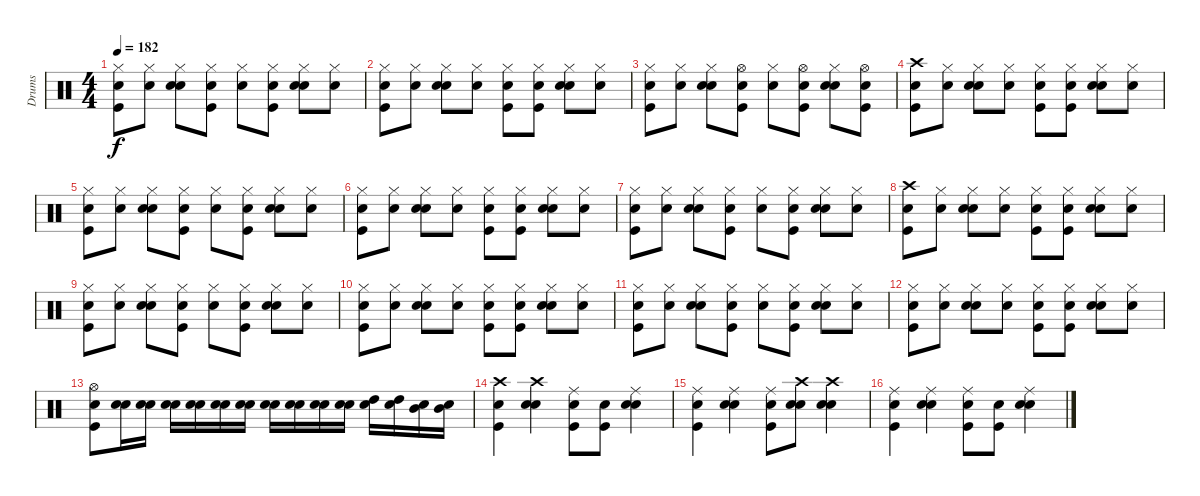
\track ("Drums" "Drums") {instrument percussion}
\staff {score}
\articulation defaults
\ts (4 4)
\tempo 182
\clef neutral
\ks c
("Snare (hit)" "Kick (hit)" "Hi-Hat (closed)").8{dy f} ("Snare (hit)" "Hi-Hat (closed)").8 ("Snare (hit)" "Electric Snare (hit)" "Hi-Hat (closed)").8 ("Snare (hit)" "Kick (hit)" "Hi-Hat (closed)").8 ("Snare (hit)" "Hi-Hat (closed)").8 ("Snare (hit)" "Kick (hit)" "Hi-Hat (closed)").8 ("Snare (hit)" "Electric Snare (hit)" "Hi-Hat (closed)").8 ("Snare (hit)" "Hi-Hat (closed)").8 |
("Snare (hit)" "Kick (hit)" "Hi-Hat (closed)").8 ("Snare (hit)" "Hi-Hat (closed)").8 ("Snare (hit)" "Electric Snare (hit)" "Hi-Hat (closed)").8 ("Snare (hit)" "Hi-Hat (closed)").8 ("Snare (hit)" "Kick (hit)" "Hi-Hat (closed)").8 ("Snare (hit)" "Kick (hit)" "Hi-Hat (closed)").8 ("Snare (hit)" "Electric Snare (hit)" "Hi-Hat (closed)").8 ("Snare (hit)" "Hi-Hat (closed)").8 |
("Snare (hit)" "Kick (hit)" "Hi-Hat (closed)").8 ("Snare (hit)" "Hi-Hat (closed)").8 ("Snare (hit)" "Electric Snare (hit)" "Hi-Hat (closed)").8 ("Snare (hit)" "Kick (hit)" "Hi-Hat (open)").8 ("Snare (hit)" "Hi-Hat (closed)").8 ("Snare (hit)" "Kick (hit)" "Hi-Hat (open)").8 ("Snare (hit)" "Electric Snare (hit)" "Hi-Hat (closed)").8 ("Snare (hit)" "Kick (hit)" "Hi-Hat (open)").8 |
("Snare (hit)" "Kick (hit)" "Crash high (hit)").8 ("Snare (hit)" "Hi-Hat (closed)").8 ("Snare (hit)" "Electric Snare (hit)" "Hi-Hat (closed)").8 ("Snare (hit)" "Hi-Hat (closed)").8 ("Snare (hit)" "Kick (hit)" "Hi-Hat (closed)").8 ("Snare (hit)" "Kick (hit)" "Hi-Hat (closed)").8 ("Snare (hit)" "Electric Snare (hit)" "Hi-Hat (closed)").8 ("Snare (hit)" "Hi-Hat (closed)").8 |
("Snare (hit)" "Kick (hit)" "Hi-Hat (closed)").8 ("Snare (hit)" "Hi-Hat (closed)").8 ("Snare (hit)" "Electric Snare (hit)" "Hi-Hat (closed)").8 ("Snare (hit)" "Kick (hit)" "Hi-Hat (closed)").8 ("Snare (hit)" "Hi-Hat (closed)").8 ("Snare (hit)" "Kick (hit)" "Hi-Hat (closed)").8 ("Snare (hit)" "Electric Snare (hit)" "Hi-Hat (closed)").8 ("Snare (hit)" "Hi-Hat (closed)").8 |
("Snare (hit)" "Kick (hit)" "Hi-Hat (closed)").8 ("Snare (hit)" "Hi-Hat (closed)").8 ("Snare (hit)" "Electric Snare (hit)" "Hi-Hat (closed)").8 ("Snare (hit)" "Hi-Hat (closed)").8 ("Snare (hit)" "Kick (hit)" "Hi-Hat (closed)").8 ("Snare (hit)" "Kick (hit)" "Hi-Hat (closed)").8 ("Snare (hit)" "Electric Snare (hit)" "Hi-Hat (closed)").8 ("Snare (hit)" "Hi-Hat (closed)").8 |
("Snare (hit)" "Kick (hit)" "Hi-Hat (closed)").8 ("Snare (hit)" "Hi-Hat (closed)").8 ("Snare (hit)" "Electric Snare (hit)" "Hi-Hat (closed)").8 ("Snare (hit)" "Kick (hit)" "Hi-Hat (closed)").8 ("Snare (hit)" "Hi-Hat (closed)").8 ("Snare (hit)" "Kick (hit)" "Hi-Hat (closed)").8 ("Snare (hit)" "Electric Snare (hit)" "Hi-Hat (closed)").8 ("Snare (hit)" "Hi-Hat (closed)").8 |
("Snare (hit)" "Kick (hit)" "Crash high (hit)").8 ("Snare (hit)" "Hi-Hat (closed)").8 ("Snare (hit)" "Electric Snare (hit)" "Hi-Hat (closed)").8 ("Snare (hit)" "Hi-Hat (closed)").8 ("Snare (hit)" "Kick (hit)" "Hi-Hat (closed)").8 ("Snare (hit)" "Kick (hit)" "Hi-Hat (closed)").8 ("Snare (hit)" "Electric Snare (hit)" "Hi-Hat (closed)").8 ("Snare (hit)" "Hi-Hat (closed)").8 |
("Snare (hit)" "Kick (hit)" "Hi-Hat (closed)").8 ("Snare (hit)" "Hi-Hat (closed)").8 ("Snare (hit)" "Electric Snare (hit)" "Hi-Hat (closed)").8 ("Snare (hit)" "Kick (hit)" "Hi-Hat (closed)").8 ("Snare (hit)" "Hi-Hat (closed)").8 ("Snare (hit)" "Kick (hit)" "Hi-Hat (closed)").8 ("Snare (hit)" "Electric Snare (hit)" "Hi-Hat (closed)").8 ("Snare (hit)" "Hi-Hat (closed)").8 |
("Snare (hit)" "Kick (hit)" "Hi-Hat (closed)").8 ("Snare (hit)" "Hi-Hat (closed)").8 ("Snare (hit)" "Electric Snare (hit)" "Hi-Hat (closed)").8 ("Snare (hit)" "Hi-Hat (closed)").8 ("Snare (hit)" "Kick (hit)" "Hi-Hat (closed)").8 ("Snare (hit)" "Kick (hit)" "Hi-Hat (closed)").8 ("Snare (hit)" "Electric Snare (hit)" "Hi-Hat (closed)").8 ("Snare (hit)" "Hi-Hat (closed)").8 |
("Snare (hit)" "Kick (hit)" "Hi-Hat (closed)").8 ("Snare (hit)" "Hi-Hat (closed)").8 ("Snare (hit)" "Electric Snare (hit)" "Hi-Hat (closed)").8 ("Snare (hit)" "Kick (hit)" "Hi-Hat (closed)").8 ("Snare (hit)" "Hi-Hat (closed)").8 ("Snare (hit)" "Kick (hit)" "Hi-Hat (closed)").8 ("Snare (hit)" "Electric Snare (hit)" "Hi-Hat (closed)").8 ("Snare (hit)" "Hi-Hat (closed)").8 |
("Snare (hit)" "Kick (hit)" "Hi-Hat (closed)").8 ("Snare (hit)" "Hi-Hat (closed)").8 ("Snare (hit)" "Electric Snare (hit)" "Hi-Hat (closed)").8 ("Snare (hit)" "Hi-Hat (closed)").8 ("Snare (hit)" "Kick (hit)" "Hi-Hat (closed)").8 ("Snare (hit)" "Kick (hit)" "Hi-Hat (closed)").8 ("Snare (hit)" "Electric Snare (hit)" "Hi-Hat (closed)").8 ("Snare (hit)" "Hi-Hat (closed)").8 |
("Snare (hit)" "Kick (hit)" "Hi-Hat (open)").8 ("Snare (hit)" "Electric Snare (hit)").16 ("Snare (hit)" "Electric Snare (hit)").16 ("Snare (hit)" "Electric Snare (hit)").16 ("Snare (hit)" "Electric Snare (hit)").16 ("Snare (hit)" "Electric Snare (hit)").16 ("Snare (hit)" "Electric Snare (hit)").16 ("Snare (hit)" "Electric Snare (hit)").16 ("Snare (hit)" "Electric Snare (hit)").16 ("Snare (hit)" "Electric Snare (hit)").16 ("Snare (hit)" "Electric Snare (hit)").16 ("Snare (hit)" "High Tom (hit)").16 ("Snare (hit)" "High Tom (hit)").16 ("Snare (hit)" "Mid Tom (hit)").16 ("Snare (hit)" "Mid Tom (hit)").16 |
("Snare (hit)" "Kick (hit)" "Crash high (hit)").4 ("Snare (hit)" "Electric Snare (hit)" "Crash high (hit)").4 ("Snare (hit)" "Kick (hit)" "Ride (middle)").8 ("Snare (hit)" "Kick (hit)").8 ("Snare (hit)" "Electric Snare (hit)" "Ride (middle)").4 |
("Snare (hit)" "Kick (hit)" "Ride (middle)").4 ("Snare (hit)" "Electric Snare (hit)" "Ride (middle)").4 ("Snare (hit)" "Kick (hit)" "Ride (middle)").8 ("Snare (hit)" "Electric Snare (hit)" "Crash high (hit)").8 ("Snare (hit)" "Electric Snare (hit)" "Crash high (hit)").4 |
("Snare (hit)" "Kick (hit)" "Ride (middle)").4 ("Snare (hit)" "Electric Snare (hit)" "Ride (middle)").4 ("Snare (hit)" "Kick (hit)" "Ride (middle)").8 ("Snare (hit)" "Kick (hit)").8 ("Snare (hit)" "Electric Snare (hit)" "Ride (middle)").4
